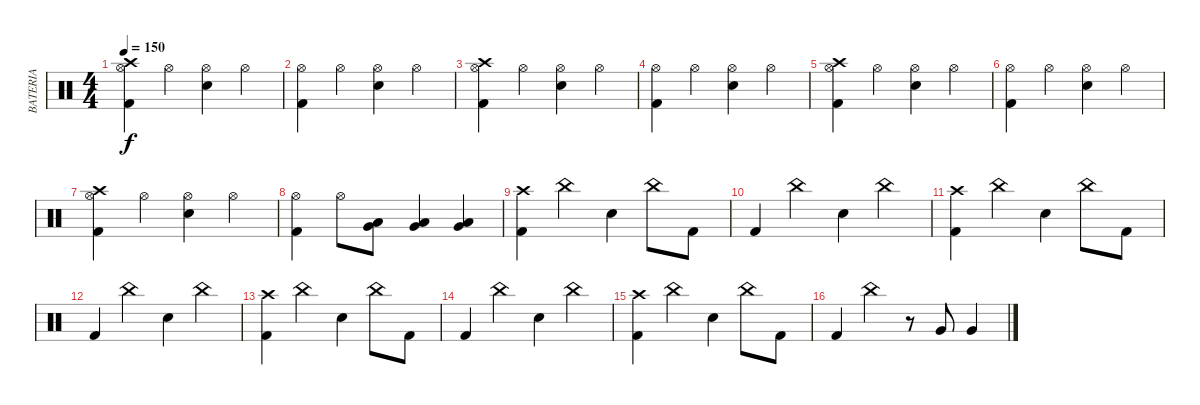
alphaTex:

\track ("BATERIA" "BATERIA") {instrument percussion}
\staff {score}
\articulation defaults
\ts (4 4)
\tempo 150
\clef neutral
\ks c
("Crash high (hit)" "Hi-Hat (open)" "Kick (hit) 2").4{dy f} "Hi-Hat (open)".4 ("Hi-Hat (open)" "Snare (hit) 2").4 "Hi-Hat (open)".4 |
("Hi-Hat (open)" "Kick (hit) 2").4 "Hi-Hat (open)".4 ("Hi-Hat (open)" "Snare (hit) 2").4 "Hi-Hat (open)".4 |
("Crash high (hit)" "Hi-Hat (open)" "Kick (hit) 2").4 "Hi-Hat (open)".4 ("Hi-Hat (open)" "Snare (hit) 2").4 "Hi-Hat (open)".4 |
("Hi-Hat (open)" "Kick (hit) 2").4 "Hi-Hat (open)".4 ("Hi-Hat (open)" "Snare (hit) 2").4 "Hi-Hat (open)".4 |
("Crash high (hit)" "Hi-Hat (open)" "Kick (hit) 2").4 "Hi-Hat (open)".4 ("Hi-Hat (open)" "Snare (hit) 2").4 "Hi-Hat (open)".4 |
("Hi-Hat (open)" "Kick (hit) 2").4 "Hi-Hat (open)".4 ("Hi-Hat (open)" "Snare (hit) 2").4 "Hi-Hat (open)".4 |
("Crash high (hit)" "Hi-Hat (open)" "Kick (hit) 2").4 "Hi-Hat (open)".4 ("Hi-Hat (open)" "Snare (hit) 2").4 "Hi-Hat (open)".4 |
("Hi-Hat (open)" "Kick (hit) 2").4 "Hi-Hat (open)".8 ("Low Floor Tom (hit)" "Very Low Tom (hit)").8 ("Low Floor Tom (hit)" "Very Low Tom (hit)").4 ("Low Floor Tom (hit)" "Very Low Tom (hit)").4 |
("Crash high (hit)" "Kick (hit) 2").4 "China (hit)".4 "Snare (hit) 2".4 "China (hit)".8 "Kick (hit) 2".8 |
"Kick (hit) 2".4 "China (hit)".4 "Snare (hit) 2".4 "China (hit)".4 |
("Crash high (hit)" "Kick (hit) 2").4 "China (hit)".4 "Snare (hit) 2".4 "China (hit)".8 "Kick (hit) 2".8 |
"Kick (hit) 2".4 "China (hit)".4 "Snare (hit) 2".4 "China (hit)".4 |
("Crash high (hit)" "Kick (hit) 2").4 "China (hit)".4 "Snare (hit) 2".4 "China (hit)".8 "Kick (hit) 2".8 |
"Kick (hit) 2".4 "China (hit)".4 "Snare (hit) 2".4 "China (hit)".4 |
("Crash high (hit)" "Kick (hit) 2").4 "China (hit)".4 "Snare (hit) 2".4 "China (hit)".8 "Kick (hit) 2".8 |
"Kick (hit) 2".4 "China (hit)".4 r.8 "Very Low Tom (hit)".8 "Very Low Tom (hit)".4
